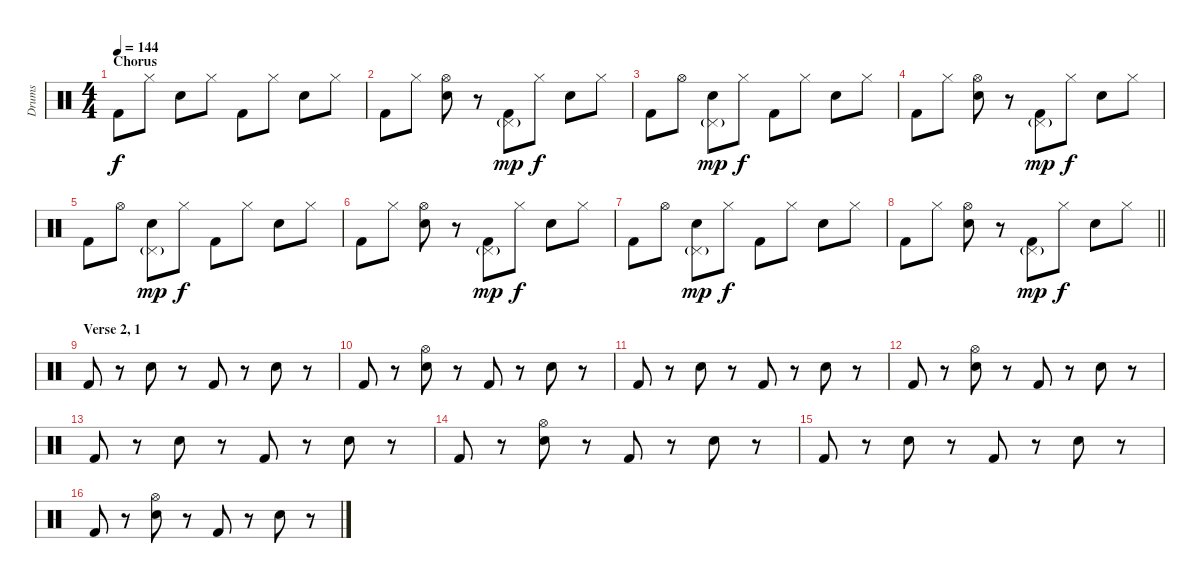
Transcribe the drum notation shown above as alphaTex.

\track ("Drums" "Drums") {instrument percussion}
\staff {score}
\articulation defaults
\ts (4 4)
\section ("" "Chorus")
\tempo 144
\clef neutral
\ks c "Kick (hit) 2".8{dy f} "Hi-Hat (closed)".8 "Snare (hit) 2".8 "Hi-Hat (closed)".8 "Kick (hit) 2".8 "Hi-Hat (closed)".8 "Snare (hit) 2".8 "Hi-Hat (closed)".8
|
"Kick (hit) 2".8 "Hi-Hat (closed)".8 ("Hi-Hat (open)" "Snare (hit) 2").8 r.8 ("Pedal Hi-Hat (hit)"{g} "Kick (hit) 2").8{dy mp} "Hi-Hat (closed)".8{dy f} "Snare (hit) 2".8 "Hi-Hat (closed)".8 |
"Kick (hit) 2".8 "Hi-Hat (open)".8 ("Pedal Hi-Hat (hit)"{g} "Snare (hit) 2").8{dy mp} "Hi-Hat (closed)".8{dy f} "Kick (hit) 2".8 "Hi-Hat (closed)".8 "Snare (hit) 2".8 "Hi-Hat (closed)".8 |
"Kick (hit) 2".8 "Hi-Hat (closed)".8 ("Hi-Hat (open)" "Snare (hit) 2").8 r.8 ("Pedal Hi-Hat (hit)"{g} "Kick (hit) 2").8{dy mp} "Hi-Hat (closed)".8{dy f} "Snare (hit) 2".8 "Hi-Hat (closed)".8 |
"Kick (hit) 2".8 "Hi-Hat (open)".8 ("Pedal Hi-Hat (hit)"{g} "Snare (hit) 2").8{dy mp} "Hi-Hat (closed)".8{dy f} "Kick (hit) 2".8 "Hi-Hat (closed)".8 "Snare (hit) 2".8 "Hi-Hat (closed)".8 |
"Kick (hit) 2".8 "Hi-Hat (closed)".8 ("Hi-Hat (open)" "Snare (hit) 2").8 r.8 ("Pedal Hi-Hat (hit)"{g} "Kick (hit) 2").8{dy mp} "Hi-Hat (closed)".8{dy f} "Snare (hit) 2".8 "Hi-Hat (closed)".8 |
"Kick (hit) 2".8 "Hi-Hat (open)".8 ("Pedal Hi-Hat (hit)"{g} "Snare (hit) 2").8{dy mp} "Hi-Hat (closed)".8{dy f} "Kick (hit) 2".8 "Hi-Hat (closed)".8 "Snare (hit) 2".8 "Hi-Hat (closed)".8 |
\barLineRight lightlight "Kick (hit) 2".8 "Hi-Hat (closed)".8
("Hi-Hat (open)" "Snare (hit) 2").8 r.8 ("Pedal Hi-Hat (hit)"{g} "Kick (hit) 2").8{dy mp} "Hi-Hat (closed)".8{dy f} "Snare (hit) 2".8 "Hi-Hat (closed)".8 |
\section ("" "Verse 2, 1")
"Kick (hit) 2".8 r.8 "Snare (hit) 2".8 r.8 "Kick (hit) 2".8 r.8 "Snare (hit) 2".8 r.8 |
"Kick (hit) 2".8 r.8 ("Hi-Hat (open)" "Snare (hit) 2").8 r.8 "Kick (hit) 2".8 r.8 "Snare (hit) 2".8 r.8 |
"Kick (hit) 2".8 r.8 "Snare (hit) 2".8 r.8 "Kick (hit) 2".8 r.8 "Snare (hit) 2".8 r.8 |
"Kick (hit) 2".8 r.8 ("Hi-Hat (open)" "Snare (hit) 2").8 r.8 "Kick (hit) 2".8 r.8 "Snare (hit) 2".8 r.8 |
"Kick (hit) 2".8 r.8 "Snare (hit) 2".8 r.8 "Kick (hit) 2".8 r.8 "Snare (hit) 2".8 r.8 |
"Kick (hit) 2".8 r.8 ("Hi-Hat (open)" "Snare (hit) 2").8 r.8 "Kick (hit) 2".8 r.8 "Snare (hit) 2".8 r.8 |
"Kick (hit) 2".8 r.8 "Snare (hit) 2".8 r.8 "Kick (hit) 2".8 r.8 "Snare (hit) 2".8 r.8 |
"Kick (hit) 2".8 r.8 ("Hi-Hat (open)" "Snare (hit) 2").8 r.8 "Kick (hit) 2".8 r.8 "Snare (hit) 2".8 r.8
